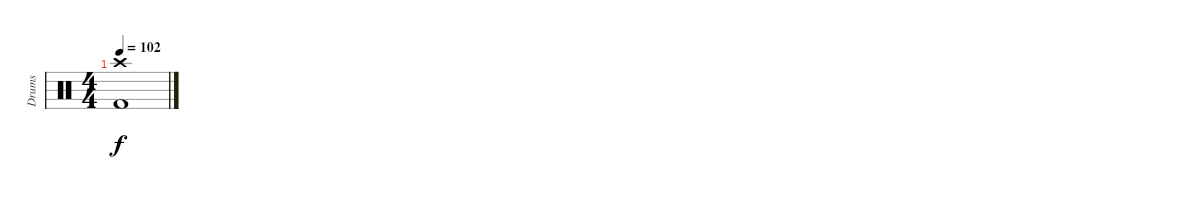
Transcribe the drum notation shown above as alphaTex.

\track ("Drums" "Drums") {instrument percussion}
\staff {score}
\articulation defaults
\ts (4 4)
\tempo 102
\clef neutral
\ks c
("Kick (hit) 2" "Crash high (hit)").1{dy f}
